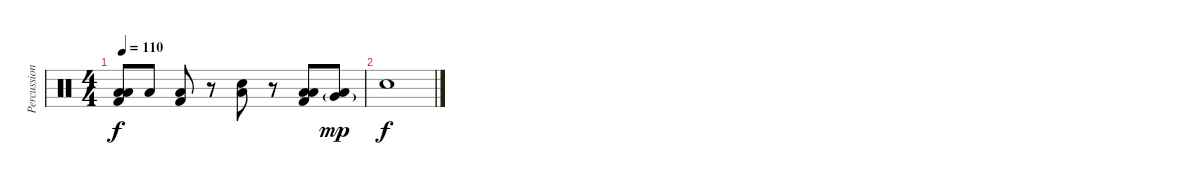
\track ("Percussions" "Percussion") {instrument percussion}
\staff {score}
\articulation defaults
\ts (4 4)
\tempo 110
\clef neutral
\ks c
("Low Tom (hit)" "Low Floor Tom (hit)" "Kick (hit) 2").8{dy f} "Low Floor Tom (hit)".8 ("Low Tom (hit)" "Kick (hit) 2").8 r.8 ("Low Floor Tom (hit)" "Snare (hit) 2").8 r.8 ("Low Tom (hit)" "Low Floor Tom (hit)" "Kick (hit) 2").8 ("Very Low Tom (hit)"{g} "Low Floor Tom (hit)").8{dy mp} |
"Snare (hit) 2".1{dy f}
